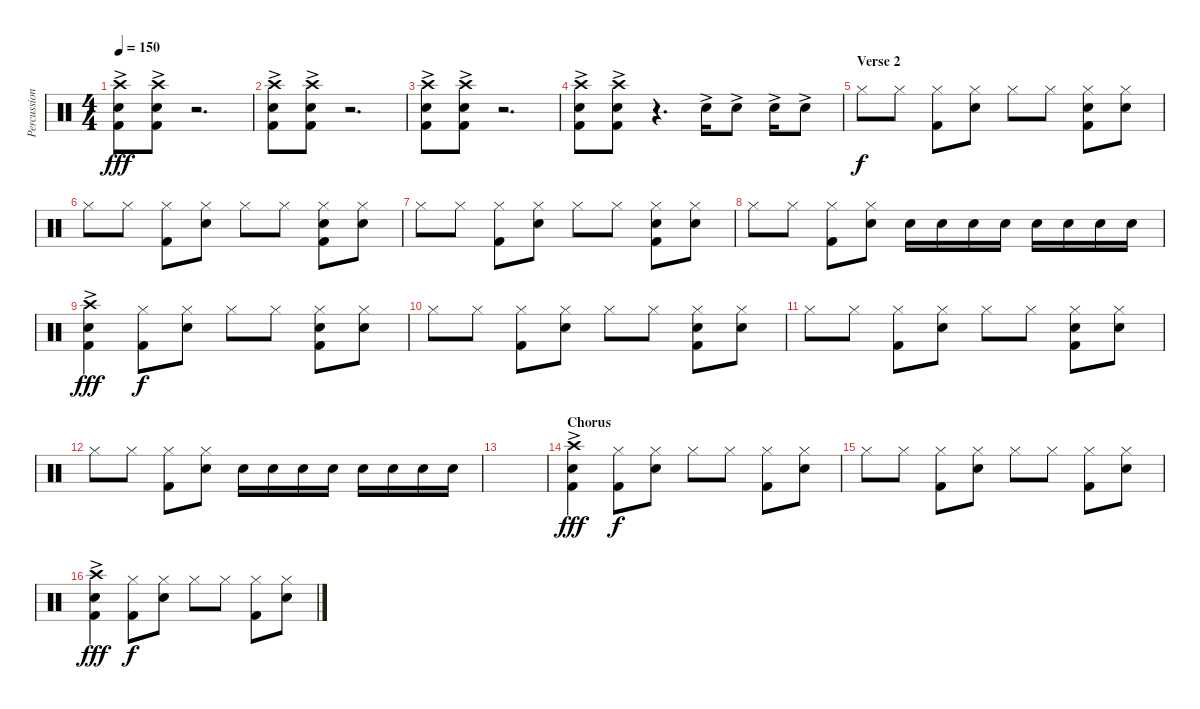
\track ("Percussion" "Percussion") {instrument percussion}
\staff {score}
\articulation defaults
\ts (4 4)
\tempo 150
\clef neutral
\ks c
("Crash high (hit)"{ac} "Kick (hit) 2"{ac} "Electric Snare (hit)"{ac}).8{dy fff} ("Crash high (hit)"{ac} "Kick (hit) 2"{ac} "Electric Snare (hit)"{ac}).8 r.2{d} |
("Crash high (hit)"{ac} "Kick (hit) 2"{ac} "Electric Snare (hit)"{ac}).8 ("Crash high (hit)"{ac} "Kick (hit) 2"{ac} "Electric Snare (hit)"{ac}).8 r.2{d} |
("Crash high (hit)"{ac} "Kick (hit) 2"{ac} "Electric Snare (hit)"{ac}).8 ("Crash high (hit)"{ac} "Kick (hit) 2"{ac} "Electric Snare (hit)"{ac}).8 r.2{d} |
("Crash high (hit)"{ac} "Kick (hit) 2"{ac} "Electric Snare (hit)"{ac}).8 ("Crash high (hit)"{ac} "Kick (hit) 2"{ac} "Electric Snare (hit)"{ac}).8 r.4{d} "Electric Snare (hit)"{ac}.16 "Electric Snare (hit)"{ac}.8 "Electric Snare (hit)"{ac}.16 "Electric Snare (hit)"{ac}.8 |
\section ("" "Verse 2")
"Hi-Hat (closed)".8{dy f} "Hi-Hat (closed)".8 ("Hi-Hat (closed)" "Kick (hit) 2").8 ("Hi-Hat (closed)" "Electric Snare (hit)").8 "Hi-Hat (closed)".8 "Hi-Hat (closed)".8 ("Hi-Hat (closed)" "Electric Snare (hit)" "Kick (hit) 2").8 ("Hi-Hat (closed)" "Electric Snare (hit)").8 |
"Hi-Hat (closed)".8 "Hi-Hat (closed)".8 ("Hi-Hat (closed)" "Kick (hit) 2").8 ("Hi-Hat (closed)" "Electric Snare (hit)").8 "Hi-Hat (closed)".8 "Hi-Hat (closed)".8 ("Hi-Hat (closed)" "Electric Snare (hit)" "Kick (hit) 2").8 ("Hi-Hat (closed)" "Electric Snare (hit)").8 |
"Hi-Hat (closed)".8 "Hi-Hat (closed)".8 ("Hi-Hat (closed)" "Kick (hit) 2").8 ("Hi-Hat (closed)" "Electric Snare (hit)").8 "Hi-Hat (closed)".8 "Hi-Hat (closed)".8 ("Hi-Hat (closed)" "Electric Snare (hit)" "Kick (hit) 2").8 ("Hi-Hat (closed)" "Electric Snare (hit)").8 |
"Hi-Hat (closed)".8 "Hi-Hat (closed)".8 ("Hi-Hat (closed)" "Kick (hit) 2").8 ("Hi-Hat (closed)" "Electric Snare (hit)").8 "Electric Snare (hit)".16 "Electric Snare (hit)".16 "Electric Snare (hit)".16 "Electric Snare (hit)".16 "Electric Snare (hit)".16 "Electric Snare (hit)".16 "Electric Snare (hit)".16 "Electric Snare (hit)".16 |
("Crash high (hit)"{ac} "Kick (hit) 2"{ac} "Electric Snare (hit)"{ac}).4{dy fff} ("Hi-Hat (closed)" "Kick (hit) 2").8{dy f} ("Hi-Hat (closed)" "Electric Snare (hit)").8 "Hi-Hat (closed)".8 "Hi-Hat (closed)".8 ("Hi-Hat (closed)" "Electric Snare (hit)" "Kick (hit) 2").8 ("Hi-Hat (closed)" "Electric Snare (hit)").8 |
"Hi-Hat (closed)".8 "Hi-Hat (closed)".8 ("Hi-Hat (closed)" "Kick (hit) 2").8 ("Hi-Hat (closed)" "Electric Snare (hit)").8 "Hi-Hat (closed)".8 "Hi-Hat (closed)".8 ("Hi-Hat (closed)" "Electric Snare (hit)" "Kick (hit) 2").8 ("Hi-Hat (closed)" "Electric Snare (hit)").8 |
"Hi-Hat (closed)".8 "Hi-Hat (closed)".8 ("Hi-Hat (closed)" "Kick (hit) 2").8 ("Hi-Hat (closed)" "Electric Snare (hit)").8 "Hi-Hat (closed)".8 "Hi-Hat (closed)".8 ("Hi-Hat (closed)" "Electric Snare (hit)" "Kick (hit) 2").8 ("Hi-Hat (closed)" "Electric Snare (hit)").8 |
"Hi-Hat (closed)".8 "Hi-Hat (closed)".8 ("Hi-Hat (closed)" "Kick (hit) 2").8 ("Hi-Hat (closed)" "Electric Snare (hit)").8 "Electric Snare (hit)".16 "Electric Snare (hit)".16 "Electric Snare (hit)".16 "Electric Snare (hit)".16 "Electric Snare (hit)".16 "Electric Snare (hit)".16 "Electric Snare (hit)".16 "Electric Snare (hit)".16 |
|
\section ("" "Chorus")
("Crash high (hit)"{ac} "Kick (hit) 2"{ac} "Electric Snare (hit)"{ac}).4{dy fff} ("Hi-Hat (closed)" "Kick (hit) 2").8{dy f} ("Hi-Hat (closed)" "Electric Snare (hit)").8 "Hi-Hat (closed)".8 "Hi-Hat (closed)".8 ("Hi-Hat (closed)" "Kick (hit) 2").8 ("Hi-Hat (closed)" "Electric Snare (hit)").8 |
"Hi-Hat (closed)".8 "Hi-Hat (closed)".8 ("Hi-Hat (closed)" "Kick (hit) 2").8 ("Hi-Hat (closed)" "Electric Snare (hit)").8 "Hi-Hat (closed)".8 "Hi-Hat (closed)".8 ("Hi-Hat (closed)" "Kick (hit) 2").8 ("Hi-Hat (closed)" "Electric Snare (hit)").8 |
("Crash high (hit)"{ac} "Kick (hit) 2"{ac} "Electric Snare (hit)"{ac}).4{dy fff} ("Hi-Hat (closed)" "Kick (hit) 2").8{dy f} ("Hi-Hat (closed)" "Electric Snare (hit)").8 "Hi-Hat (closed)".8 "Hi-Hat (closed)".8 ("Hi-Hat (closed)" "Kick (hit) 2").8 ("Hi-Hat (closed)" "Electric Snare (hit)").8
